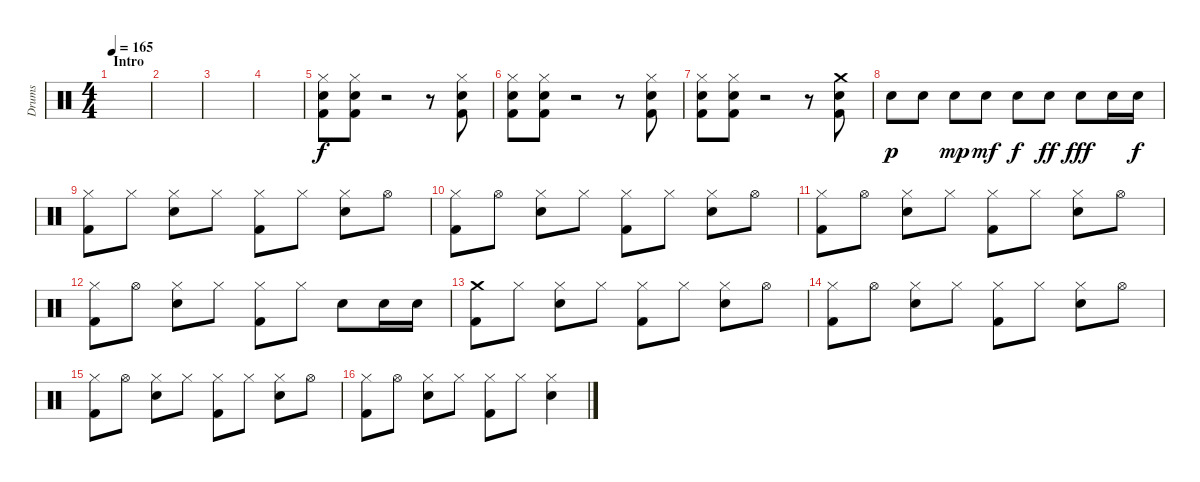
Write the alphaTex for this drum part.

\track ("Drums" "Drums") {instrument percussion}
\staff {score}
\articulation defaults
\ts (4 4)
\section ("" "Intro")
\tempo 165
\clef neutral
\ks c
|
|
|
|
("Hi-Hat (closed)" "Snare (hit) 2" "Kick (hit) 2").8 ("Hi-Hat (closed)" "Snare (hit) 2" "Kick (hit) 2").8 r.2 r.8 ("Hi-Hat (closed)" "Snare (hit) 2" "Kick (hit) 2").8 |
("Hi-Hat (closed)" "Snare (hit) 2" "Kick (hit) 2").8 ("Hi-Hat (closed)" "Snare (hit) 2" "Kick (hit) 2").8 r.2 r.8 ("Hi-Hat (closed)" "Snare (hit) 2" "Kick (hit) 2").8 |
("Hi-Hat (closed)" "Snare (hit) 2" "Kick (hit) 2").8 ("Hi-Hat (closed)" "Snare (hit) 2" "Kick (hit) 2").8 r.2 r.8 ("Crash medium (hit)" "Snare (hit) 2" "Kick (hit) 2").8 |
"Snare (hit) 2".8{dy p} "Snare (hit) 2".8 "Snare (hit) 2".8{dy mp} "Snare (hit) 2".8{dy mf} "Snare (hit) 2".8{dy f} "Snare (hit) 2".8{dy ff} "Snare (hit) 2".8{dy fff} "Snare (hit) 2".16 "Snare (hit) 2".16{dy f} |
("Hi-Hat (closed)" "Kick (hit) 2").8 "Hi-Hat (closed)".8 ("Hi-Hat (closed)" "Snare (hit) 2").8 "Hi-Hat (closed)".8 ("Hi-Hat (closed)" "Kick (hit) 2").8 "Hi-Hat (closed)".8 ("Hi-Hat (closed)" "Snare (hit) 2").8 "Hi-Hat (open)".8 |
("Hi-Hat (closed)" "Kick (hit) 2").8 "Hi-Hat (open)".8 ("Hi-Hat (closed)" "Snare (hit) 2").8 "Hi-Hat (closed)".8 ("Hi-Hat (closed)" "Kick (hit) 2").8 "Hi-Hat (closed)".8 ("Hi-Hat (closed)" "Snare (hit) 2").8 "Hi-Hat (open)".8 |
("Hi-Hat (closed)" "Kick (hit) 2").8 "Hi-Hat (open)".8 ("Hi-Hat (closed)" "Snare (hit) 2").8 "Hi-Hat (closed)".8 ("Hi-Hat (closed)" "Kick (hit) 2").8 "Hi-Hat (closed)".8 ("Hi-Hat (closed)" "Snare (hit) 2").8 "Hi-Hat (open)".8 |
("Hi-Hat (closed)" "Kick (hit) 2").8 "Hi-Hat (open)".8 ("Hi-Hat (closed)" "Snare (hit) 2").8 "Hi-Hat (closed)".8 ("Hi-Hat (closed)" "Kick (hit) 2").8 "Hi-Hat (closed)".8 "Snare (hit) 2".8 "Snare (hit) 2".16 "Snare (hit) 2".16 |
("Crash medium (hit)" "Kick (hit) 2").8 "Hi-Hat (closed)".8 ("Hi-Hat (closed)" "Snare (hit) 2").8 "Hi-Hat (closed)".8 ("Hi-Hat (closed)" "Kick (hit) 2").8 "Hi-Hat (closed)".8 ("Hi-Hat (closed)" "Snare (hit) 2").8 "Hi-Hat (open)".8 |
("Hi-Hat (closed)" "Kick (hit) 2").8 "Hi-Hat (open)".8 ("Hi-Hat (closed)" "Snare (hit) 2").8 "Hi-Hat (closed)".8 ("Hi-Hat (closed)" "Kick (hit) 2").8 "Hi-Hat (closed)".8 ("Hi-Hat (closed)" "Snare (hit) 2").8 "Hi-Hat (open)".8 |
("Hi-Hat (closed)" "Kick (hit) 2").8 "Hi-Hat (open)".8 ("Hi-Hat (closed)" "Snare (hit) 2").8 "Hi-Hat (closed)".8 ("Hi-Hat (closed)" "Kick (hit) 2").8 "Hi-Hat (closed)".8 ("Hi-Hat (closed)" "Snare (hit) 2").8 "Hi-Hat (open)".8 |
("Hi-Hat (closed)" "Kick (hit) 2").8 "Hi-Hat (open)".8 ("Hi-Hat (closed)" "Snare (hit) 2").8 "Hi-Hat (closed)".8 ("Hi-Hat (closed)" "Kick (hit) 2").8 "Hi-Hat (closed)".8 ("Hi-Hat (closed)" "Snare (hit) 2").4
